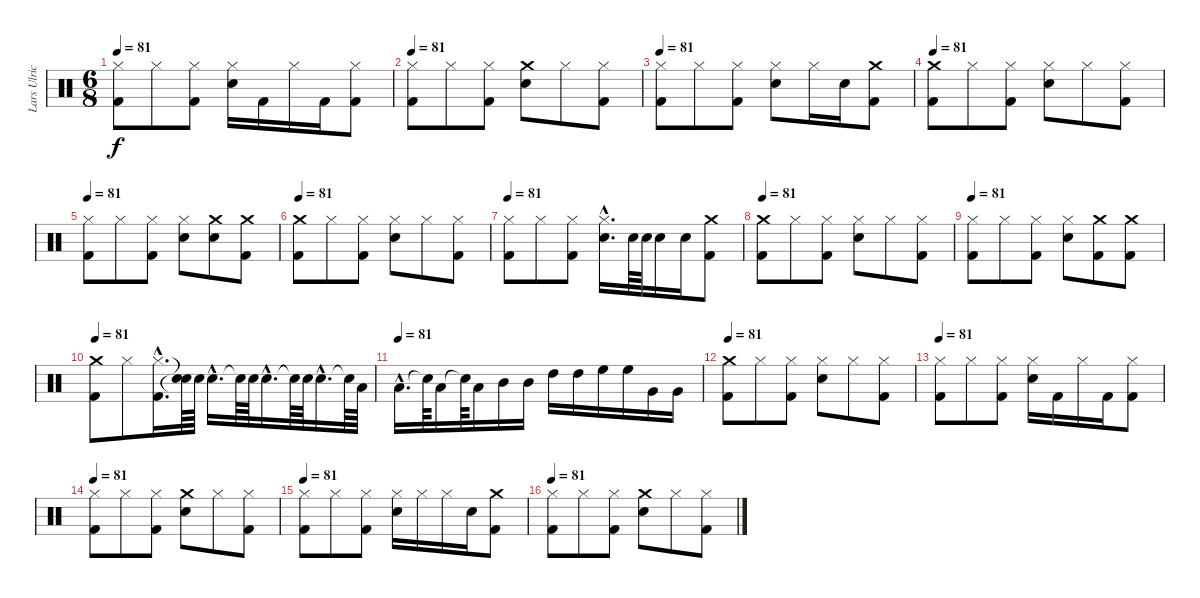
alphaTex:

\track ("Lars Ulrich" "Lars Ulric") {instrument percussion}
\staff {score}
\articulation defaults
\ts (6 8)
\tempo 81
\clef neutral
\ks c
("Hi-Hat (closed)" "Kick (hit) 2").8{dy f} "Hi-Hat (closed)".8 ("Kick (hit) 2" "Hi-Hat (closed)").8 ("Snare (hit) 2" "Hi-Hat (closed)").16 "Kick (hit) 2".16 "Hi-Hat (closed)".16 "Kick (hit) 2".16 ("Kick (hit) 2" "Hi-Hat (closed)").8 |
\tempo 81
("Kick (hit) 2" "Hi-Hat (closed)").8 "Hi-Hat (closed)".8 ("Kick (hit) 2" "Hi-Hat (closed)").8 ("Crash medium (hit)" "Snare (hit) 2").8 "Hi-Hat (closed)".8 ("Hi-Hat (closed)" "Kick (hit) 2").8 |
\tempo 81
("Kick (hit) 2" "Hi-Hat (closed)").8 "Hi-Hat (closed)".8 ("Kick (hit) 2" "Hi-Hat (closed)").8 ("Hi-Hat (closed)" "Snare (hit) 2").8 "Hi-Hat (closed)".16 "Snare (hit) 2".16 ("Crash medium (hit)" "Kick (hit) 2").8 |
\tempo 81
("Kick (hit) 2" "Crash medium (hit)").8 "Hi-Hat (closed)".8 ("Hi-Hat (closed)" "Kick (hit) 2").8 ("Snare (hit) 2" "Hi-Hat (closed)").8 "Hi-Hat (closed)".8 ("Kick (hit) 2" "Hi-Hat (closed)").8 |
\tempo 81
("Kick (hit) 2" "Hi-Hat (closed)").8 "Hi-Hat (closed)".8 ("Hi-Hat (closed)" "Kick (hit) 2").8 ("Snare (hit) 2" "Hi-Hat (closed)").8 ("Crash medium (hit)" "Snare (hit) 2").8 ("Crash medium (hit)" "Kick (hit) 2").8 |
\tempo 81
("Crash medium (hit)" "Kick (hit) 2").8 "Hi-Hat (closed)".8 ("Kick (hit) 2" "Hi-Hat (closed)").8 ("Hi-Hat (closed)" "Snare (hit) 2").8 "Hi-Hat (closed)".8 ("Kick (hit) 2" "Hi-Hat (closed)").8 |
\tempo 81
("Hi-Hat (closed)" "Kick (hit) 2").8 "Hi-Hat (closed)".8 ("Hi-Hat (closed)" "Kick (hit) 2").8 ("Snare (hit) 2"{hac} "Hi-Hat (closed)"{hac}).16{d} "Snare (hit) 2".64 "Snare (hit) 2".64 "Snare (hit) 2".16 "Snare (hit) 2".16 ("Kick (hit) 2" "Crash medium (hit)").8 |
\tempo 81
("Crash medium (hit)" "Kick (hit) 2").8 "Hi-Hat (closed)".8 ("Kick (hit) 2" "Hi-Hat (closed)").8 ("Snare (hit) 2" "Hi-Hat (closed)").8 "Hi-Hat (closed)".8 ("Kick (hit) 2" "Hi-Hat (closed)").8 |
\tempo 81
("Hi-Hat (closed)" "Kick (hit) 2").8 "Hi-Hat (closed)".8 ("Kick (hit) 2" "Hi-Hat (closed)").8 ("Hi-Hat (closed)" "Snare (hit) 2").8 ("Kick (hit) 2" "Crash medium (hit)").8 ("Kick (hit) 2" "Crash medium (hit)").8 |
\tempo 81
("Kick (hit) 2" "Crash medium (hit)").8 "Hi-Hat (closed)".8 ("Kick (hit) 2"{hac} "Hi-Hat (closed)"{hac}).16{d} ("Snare (hit)"{t} "Snare (hit)"{t}).64 "Snare (hit) 2".64 "Snare (hit) 2"{hac}.16{d} "Snare (hit)"{t}.64 "Snare (hit) 2".64 "Snare (hit) 2"{hac}.16{d} "Snare (hit)"{t}.64 "Snare (hit) 2".64 "Snare (hit) 2"{hac}.16{d} "Snare (hit)"{t}.64 "Low Tom (hit)".64 |
\tempo (81)
"Low Tom (hit)"{hac}.16{d} "Snare (hit)"{t}.64 "Low Tom (hit)".16 "Snare (hit)"{t}.64 "Low Tom (hit)".16 "Mid Tom (hit)".16 "Mid Tom (hit)".16 "High Tom (hit)".16 "High Tom (hit)".16 "High Floor Tom (hit)".16 "High Floor Tom (hit)".16 "Very Low Tom (hit)".16 "Very Low Tom (hit)".16 |
\tempo 81
("Kick (hit) 2" "Crash medium (hit)").8 "Hi-Hat (closed)".8 ("Kick (hit) 2" "Hi-Hat (closed)").8 ("Snare (hit) 2" "Hi-Hat (closed)").8 "Hi-Hat (closed)".8 ("Kick (hit) 2" "Hi-Hat (closed)").8 |
\tempo 81
("Hi-Hat (closed)" "Kick (hit) 2").8 "Hi-Hat (closed)".8 ("Kick (hit) 2" "Hi-Hat (closed)").8 ("Hi-Hat (closed)" "Snare (hit) 2").16 "Kick (hit) 2".16 "Hi-Hat (closed)".16 "Kick (hit) 2".16 ("Kick (hit) 2" "Hi-Hat (closed)").8 |
\tempo 81
("Hi-Hat (closed)" "Kick (hit) 2").8 "Hi-Hat (closed)".8 ("Hi-Hat (closed)" "Kick (hit) 2").8 ("Crash medium (hit)" "Snare (hit) 2").8 "Hi-Hat (closed)".8 ("Kick (hit) 2" "Hi-Hat (closed)").8 |
\tempo 81
("Kick (hit) 2" "Hi-Hat (closed)").8 "Hi-Hat (closed)".8 ("Kick (hit) 2" "Hi-Hat (closed)").8 ("Hi-Hat (closed)" "Snare (hit) 2").16 "Hi-Hat (closed)".16 "Hi-Hat (closed)".16 "Snare (hit) 2".16 ("Crash medium (hit)" "Kick (hit) 2").8 |
\tempo 81
("Kick (hit) 2" "Hi-Hat (closed)").8 "Hi-Hat (closed)".8 ("Kick (hit) 2" "Hi-Hat (closed)").8 ("Crash medium (hit)" "Snare (hit) 2").8 "Hi-Hat (closed)".8 ("Hi-Hat (closed)" "Kick (hit) 2").8
